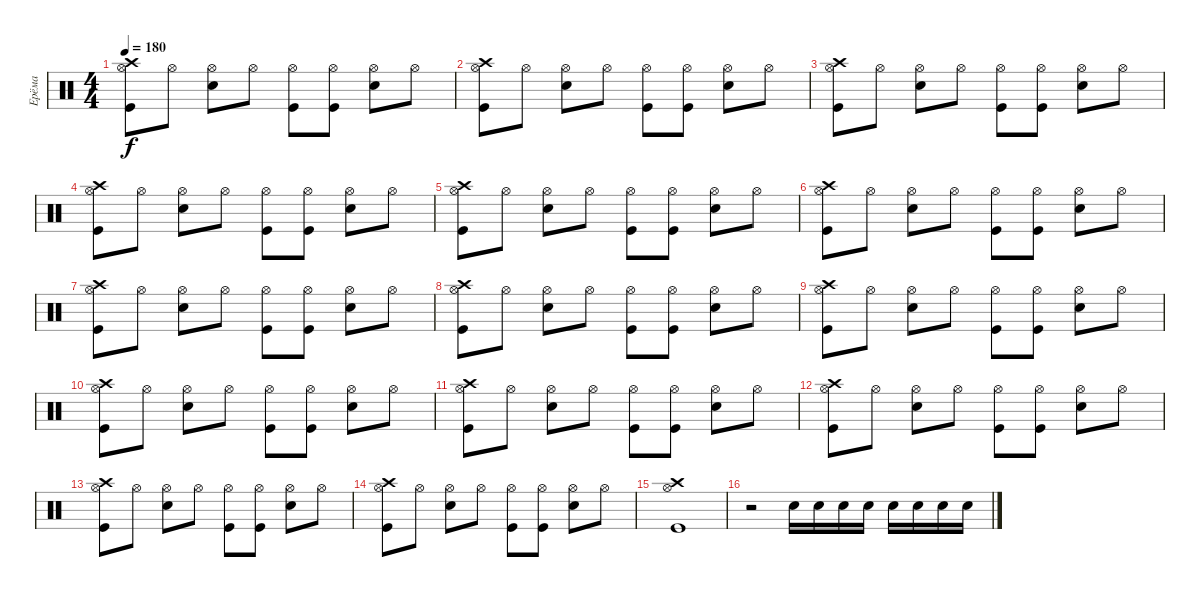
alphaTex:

\track ("Ерёма" "Ерёма") {instrument percussion}
\staff {score}
\articulation defaults
\ts (4 4)
\tempo 180
\clef neutral
\ks c
("Hi-Hat (open)" "Kick (hit)" "Crash high (hit)").8{dy f} "Hi-Hat (open)".8 ("Hi-Hat (open)" "Electric Snare (hit)").8 "Hi-Hat (open)".8 ("Hi-Hat (open)" "Kick (hit)").8 ("Hi-Hat (open)" "Kick (hit)").8 ("Hi-Hat (open)" "Electric Snare (hit)").8 "Hi-Hat (open)".8 |
("Hi-Hat (open)" "Kick (hit)" "Crash high (hit)").8 "Hi-Hat (open)".8 ("Hi-Hat (open)" "Electric Snare (hit)").8 "Hi-Hat (open)".8 ("Hi-Hat (open)" "Kick (hit)").8 ("Hi-Hat (open)" "Kick (hit)").8 ("Hi-Hat (open)" "Electric Snare (hit)").8 "Hi-Hat (open)".8 |
("Hi-Hat (open)" "Kick (hit)" "Crash high (hit)").8 "Hi-Hat (open)".8 ("Hi-Hat (open)" "Electric Snare (hit)").8 "Hi-Hat (open)".8 ("Hi-Hat (open)" "Kick (hit)").8 ("Hi-Hat (open)" "Kick (hit)").8 ("Hi-Hat (open)" "Electric Snare (hit)").8 "Hi-Hat (open)".8 |
("Hi-Hat (open)" "Kick (hit)" "Crash high (hit)").8 "Hi-Hat (open)".8 ("Hi-Hat (open)" "Electric Snare (hit)").8 "Hi-Hat (open)".8 ("Hi-Hat (open)" "Kick (hit)").8 ("Hi-Hat (open)" "Kick (hit)").8 ("Hi-Hat (open)" "Electric Snare (hit)").8 "Hi-Hat (open)".8 |
("Hi-Hat (open)" "Kick (hit)" "Crash high (hit)").8 "Hi-Hat (open)".8 ("Hi-Hat (open)" "Electric Snare (hit)").8 "Hi-Hat (open)".8 ("Hi-Hat (open)" "Kick (hit)").8 ("Hi-Hat (open)" "Kick (hit)").8 ("Hi-Hat (open)" "Electric Snare (hit)").8 "Hi-Hat (open)".8 |
("Hi-Hat (open)" "Kick (hit)" "Crash high (hit)").8 "Hi-Hat (open)".8 ("Hi-Hat (open)" "Electric Snare (hit)").8 "Hi-Hat (open)".8 ("Hi-Hat (open)" "Kick (hit)").8 ("Hi-Hat (open)" "Kick (hit)").8 ("Hi-Hat (open)" "Electric Snare (hit)").8 "Hi-Hat (open)".8 |
("Hi-Hat (open)" "Kick (hit)" "Crash high (hit)").8 "Hi-Hat (open)".8 ("Hi-Hat (open)" "Electric Snare (hit)").8 "Hi-Hat (open)".8 ("Hi-Hat (open)" "Kick (hit)").8 ("Hi-Hat (open)" "Kick (hit)").8 ("Hi-Hat (open)" "Electric Snare (hit)").8 "Hi-Hat (open)".8 |
("Hi-Hat (open)" "Kick (hit)" "Crash high (hit)").8 "Hi-Hat (open)".8 ("Hi-Hat (open)" "Electric Snare (hit)").8 "Hi-Hat (open)".8 ("Hi-Hat (open)" "Kick (hit)").8 ("Hi-Hat (open)" "Kick (hit)").8 ("Hi-Hat (open)" "Electric Snare (hit)").8 "Hi-Hat (open)".8 |
("Hi-Hat (open)" "Kick (hit)" "Crash high (hit)").8 "Hi-Hat (open)".8 ("Hi-Hat (open)" "Electric Snare (hit)").8 "Hi-Hat (open)".8 ("Hi-Hat (open)" "Kick (hit)").8 ("Hi-Hat (open)" "Kick (hit)").8 ("Hi-Hat (open)" "Electric Snare (hit)").8 "Hi-Hat (open)".8 |
("Hi-Hat (open)" "Kick (hit)" "Crash high (hit)").8 "Hi-Hat (open)".8 ("Hi-Hat (open)" "Electric Snare (hit)").8 "Hi-Hat (open)".8 ("Hi-Hat (open)" "Kick (hit)").8 ("Hi-Hat (open)" "Kick (hit)").8 ("Hi-Hat (open)" "Electric Snare (hit)").8 "Hi-Hat (open)".8 |
("Hi-Hat (open)" "Kick (hit)" "Crash high (hit)").8 "Hi-Hat (open)".8 ("Hi-Hat (open)" "Electric Snare (hit)").8 "Hi-Hat (open)".8 ("Hi-Hat (open)" "Kick (hit)").8 ("Hi-Hat (open)" "Kick (hit)").8 ("Hi-Hat (open)" "Electric Snare (hit)").8 "Hi-Hat (open)".8 |
("Hi-Hat (open)" "Kick (hit)" "Crash high (hit)").8 "Hi-Hat (open)".8 ("Hi-Hat (open)" "Electric Snare (hit)").8 "Hi-Hat (open)".8 ("Hi-Hat (open)" "Kick (hit)").8 ("Hi-Hat (open)" "Kick (hit)").8 ("Hi-Hat (open)" "Electric Snare (hit)").8 "Hi-Hat (open)".8 |
("Hi-Hat (open)" "Kick (hit)" "Crash high (hit)").8 "Hi-Hat (open)".8 ("Hi-Hat (open)" "Electric Snare (hit)").8 "Hi-Hat (open)".8 ("Hi-Hat (open)" "Kick (hit)").8 ("Hi-Hat (open)" "Kick (hit)").8 ("Hi-Hat (open)" "Electric Snare (hit)").8 "Hi-Hat (open)".8 |
("Hi-Hat (open)" "Kick (hit)" "Crash high (hit)").8 "Hi-Hat (open)".8 ("Hi-Hat (open)" "Electric Snare (hit)").8 "Hi-Hat (open)".8 ("Hi-Hat (open)" "Kick (hit)").8 ("Hi-Hat (open)" "Kick (hit)").8 ("Hi-Hat (open)" "Electric Snare (hit)").8 "Hi-Hat (open)".8 |
("Hi-Hat (open)" "Kick (hit)" "Crash high (hit)").1 |
r.2 "Electric Snare (hit)".16 "Electric Snare (hit)".16 "Electric Snare (hit)".16 "Electric Snare (hit)".16 "Electric Snare (hit)".16 "Electric Snare (hit)".16 "Electric Snare (hit)".16 "Electric Snare (hit)".16
